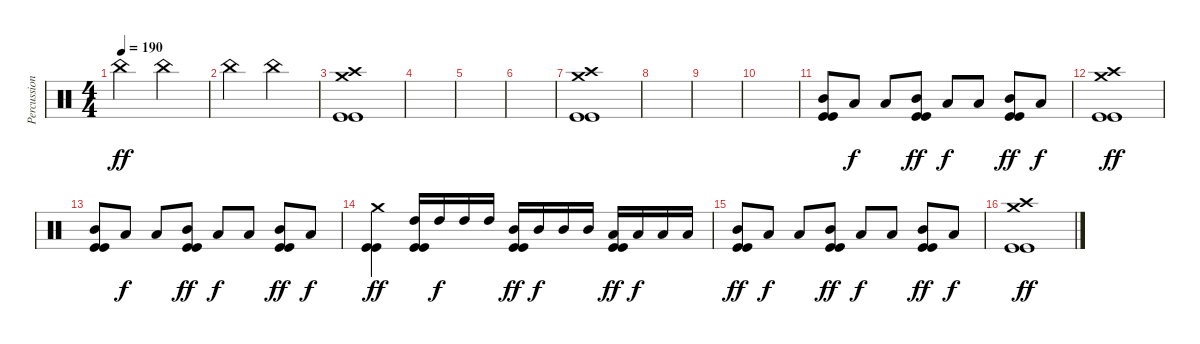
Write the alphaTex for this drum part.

\track ("Percussion" "Percussion") {instrument percussion}
\staff {score}
\articulation defaults
\ts (4 4)
\tempo 190
\clef neutral
\ks c "China (hit)".2{dy ff} "China (hit)".2
|
"China (hit)".2 "China (hit)".2 |
("Crash high (hit)" "Crash medium (hit)" "Kick (hit)" "Kick (hit)").1 |
|
|
|
("Crash high (hit)" "Crash medium (hit)" "Kick (hit)" "Kick (hit)").1 |
|
|
|
("Mid Tom (hit)" "Kick (hit)" "Kick (hit)").8 "Low Tom (hit)".8{dy f} "Low Tom (hit)".8 ("Mid Tom (hit)" "Kick (hit)" "Kick (hit)").8{dy ff} "Low Tom (hit)".8{dy f} "Low Tom (hit)".8 ("Mid Tom (hit)" "Kick (hit)" "Kick (hit)").8{dy ff} "Low Tom (hit)".8{dy f} |
("Crash high (hit)" "Crash medium (hit)" "Kick (hit)" "Kick (hit)").1{dy ff} |
("Mid Tom (hit)" "Kick (hit)" "Kick (hit)").8 "Low Tom (hit)".8{dy f} "Low Tom (hit)".8 ("Mid Tom (hit)" "Kick (hit)" "Kick (hit)").8{dy ff} "Low Tom (hit)".8{dy f} "Low Tom (hit)".8 ("Mid Tom (hit)" "Kick (hit)" "Kick (hit)").8{dy ff} "Low Tom (hit)".8{dy f} |
("Crash medium (hit)" "Kick (hit)" "Kick (hit)").4{dy ff} ("High Tom (hit)" "Kick (hit)" "Kick (hit)").16 "High Tom (hit)".16{dy f} "High Tom (hit)".16 "High Tom (hit)".16 ("Mid Tom (hit)" "Kick (hit)" "Kick (hit)").16{dy ff} "Mid Tom (hit)".16{dy f} "Mid Tom (hit)".16 "Mid Tom (hit)".16 ("Low Tom (hit)" "Kick (hit)" "Kick (hit)").16{dy ff} "Low Tom (hit)".16{dy f} "Low Tom (hit)".16 "Low Tom (hit)".16 |
("Mid Tom (hit)" "Kick (hit)" "Kick (hit)").8{dy ff} "Low Tom (hit)".8{dy f} "Low Tom (hit)".8 ("Mid Tom (hit)" "Kick (hit)" "Kick (hit)").8{dy ff} "Low Tom (hit)".8{dy f} "Low Tom (hit)".8 ("Mid Tom (hit)" "Kick (hit)" "Kick (hit)").8{dy ff} "Low Tom (hit)".8{dy f} |
("Crash high (hit)" "Crash medium (hit)" "Kick (hit)" "Kick (hit)").1{dy ff}
